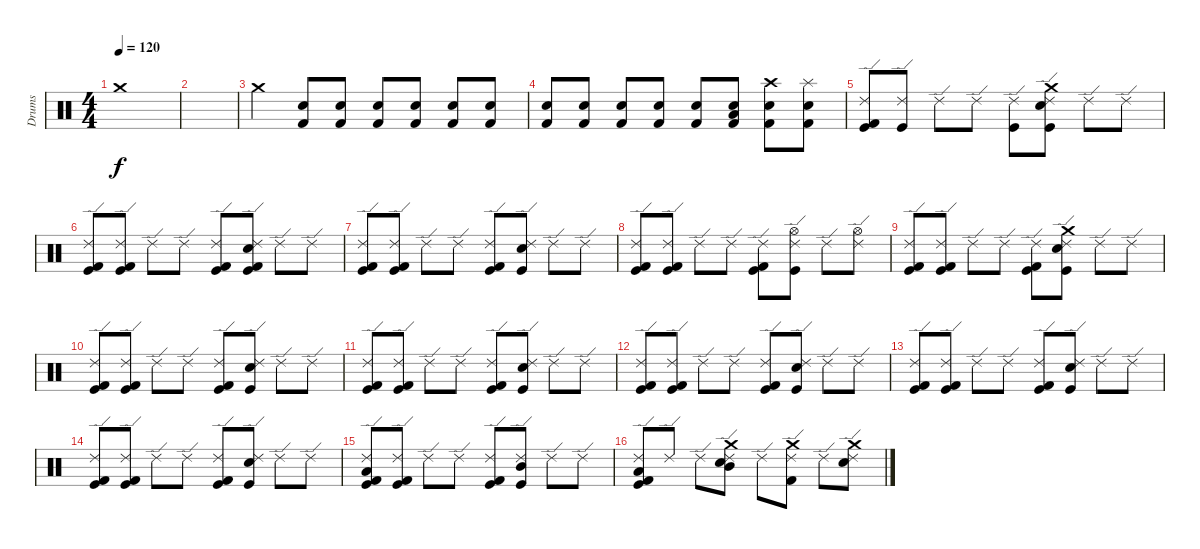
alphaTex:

\track ("Drums" "Drums") {instrument percussion}
\staff {score}
\articulation defaults
\ts (4 4)
\tempo 120
\clef neutral
\ks c "Crash medium (hit)".1{dy f}
|
|
"Crash medium (hit)".4 ("Kick (hit) 2" "Snare (hit) 2").8 ("Kick (hit) 2" "Snare (hit) 2").8 ("Kick (hit) 2" "Snare (hit) 2").8 ("Kick (hit) 2" "Snare (hit) 2").8 ("Kick (hit) 2" "Snare (hit) 2").8 ("Kick (hit) 2" "Snare (hit) 2").8 |
("Kick (hit) 2" "Snare (hit) 2").8 ("Kick (hit) 2" "Snare (hit) 2").8 ("Kick (hit) 2" "Snare (hit) 2").8 ("Kick (hit) 2" "Snare (hit) 2").8 ("Kick (hit) 2" "Snare (hit) 2").8 ("Kick (hit) 2" "Snare (hit) 2" "Low Tom (hit)").8 ("Kick (hit) 2" "Snare (hit) 2" "Crash high (hit)").8 ("Kick (hit) 2" "Snare (hit) 2" "Splash (hit)").8 |
("Ride (edge) 2" "Kick (hit) 2" "Kick (hit)").8 ("Ride (edge) 2" "Kick (hit)").8 "Ride (edge) 2".8 "Ride (edge) 2".8 ("Ride (edge) 2" "Kick (hit)").8 ("Ride (edge) 2" "Crash medium (hit)" "Snare (hit) 2" "Kick (hit)").8 "Ride (edge) 2".8 "Ride (edge) 2".8 |
("Ride (edge) 2" "Kick (hit) 2" "Kick (hit)").8 ("Ride (edge) 2" "Kick (hit) 2" "Kick (hit)").8 "Ride (edge) 2".8 "Ride (edge) 2".8 ("Ride (edge) 2" "Kick (hit) 2" "Kick (hit)").8 ("Ride (edge) 2" "Snare (hit) 2" "Kick (hit)" "Kick (hit) 2").8 "Ride (edge) 2".8 "Ride (edge) 2".8 |
("Ride (edge) 2" "Kick (hit) 2" "Kick (hit)").8 ("Ride (edge) 2" "Kick (hit) 2" "Kick (hit)").8 "Ride (edge) 2".8 "Ride (edge) 2".8 ("Ride (edge) 2" "Kick (hit) 2" "Kick (hit)").8 ("Ride (edge) 2" "Snare (hit) 2" "Kick (hit)").8 "Ride (edge) 2".8 "Ride (edge) 2".8 |
("Ride (edge) 2" "Kick (hit) 2" "Kick (hit)").8 ("Ride (edge) 2" "Kick (hit) 2" "Kick (hit)").8 "Ride (edge) 2".8 "Ride (edge) 2".8 ("Ride (edge) 2" "Kick (hit) 2" "Kick (hit)").8 ("Ride (edge) 2" "Hi-Hat (open)" "Kick (hit)").8 "Ride (edge) 2".8 ("Ride (edge) 2" "Hi-Hat (open)").8 |
("Ride (edge) 2" "Kick (hit) 2" "Kick (hit)").8 ("Ride (edge) 2" "Kick (hit) 2" "Kick (hit)").8 "Ride (edge) 2".8 "Ride (edge) 2".8 ("Ride (edge) 2" "Kick (hit) 2" "Kick (hit)").8 ("Ride (edge) 2" "Snare (hit) 2" "Kick (hit)" "Crash medium (hit)").8 "Ride (edge) 2".8 "Ride (edge) 2".8 |
("Ride (edge) 2" "Kick (hit) 2" "Kick (hit)").8 ("Ride (edge) 2" "Kick (hit) 2" "Kick (hit)").8 "Ride (edge) 2".8 "Ride (edge) 2".8 ("Ride (edge) 2" "Kick (hit) 2" "Kick (hit)").8 ("Ride (edge) 2" "Snare (hit) 2" "Kick (hit)").8 "Ride (edge) 2".8 "Ride (edge) 2".8 |
("Ride (edge) 2" "Kick (hit) 2" "Kick (hit)").8 ("Ride (edge) 2" "Kick (hit) 2" "Kick (hit)").8 "Ride (edge) 2".8 "Ride (edge) 2".8 ("Ride (edge) 2" "Kick (hit) 2" "Kick (hit)").8 ("Ride (edge) 2" "Snare (hit) 2" "Kick (hit)").8 "Ride (edge) 2".8 "Ride (edge) 2".8 |
("Ride (edge) 2" "Kick (hit) 2" "Kick (hit)").8 ("Ride (edge) 2" "Kick (hit) 2" "Kick (hit)").8 "Ride (edge) 2".8 "Ride (edge) 2".8 ("Ride (edge) 2" "Kick (hit) 2" "Kick (hit)").8 ("Ride (edge) 2" "Snare (hit) 2" "Kick (hit)").8 "Ride (edge) 2".8 "Ride (edge) 2".8 |
("Ride (edge) 2" "Kick (hit) 2" "Kick (hit)").8 ("Ride (edge) 2" "Kick (hit) 2" "Kick (hit)").8 "Ride (edge) 2".8 "Ride (edge) 2".8 ("Ride (edge) 2" "Kick (hit) 2" "Kick (hit)").8 ("Ride (edge) 2" "Snare (hit) 2" "Kick (hit)").8 "Ride (edge) 2".8 "Ride (edge) 2".8 |
("Ride (edge) 2" "Kick (hit) 2" "Kick (hit)").8 ("Ride (edge) 2" "Kick (hit) 2" "Kick (hit)").8 "Ride (edge) 2".8 "Ride (edge) 2".8 ("Ride (edge) 2" "Kick (hit) 2" "Kick (hit)").8 ("Ride (edge) 2" "Snare (hit) 2" "Kick (hit)").8 "Ride (edge) 2".8 "Ride (edge) 2".8 |
("Ride (edge) 2" "Kick (hit) 2" "Kick (hit)" "Low Tom (hit)").8 ("Ride (edge) 2" "Kick (hit) 2" "Kick (hit)").8 "Ride (edge) 2".8 "Ride (edge) 2".8 ("Ride (edge) 2" "Kick (hit) 2" "Kick (hit)").8 ("Ride (edge) 2" "Kick (hit)" "Mid Tom (hit)").8 "Ride (edge) 2".8 "Ride (edge) 2".8 |
("Ride (edge) 2" "Kick (hit) 2" "Kick (hit)" "Low Tom (hit)").8 "Ride (edge) 2".8 "Ride (edge) 2".8 ("Ride (edge) 2" "Snare (hit) 2" "Crash medium (hit)" "Mid Tom (hit)").8 "Ride (edge) 2".8 ("Ride (edge) 2" "Kick (hit) 2" "Crash medium (hit)").8 "Ride (edge) 2".8 ("Ride (edge) 2" "Snare (hit) 2" "Crash medium (hit)").8
